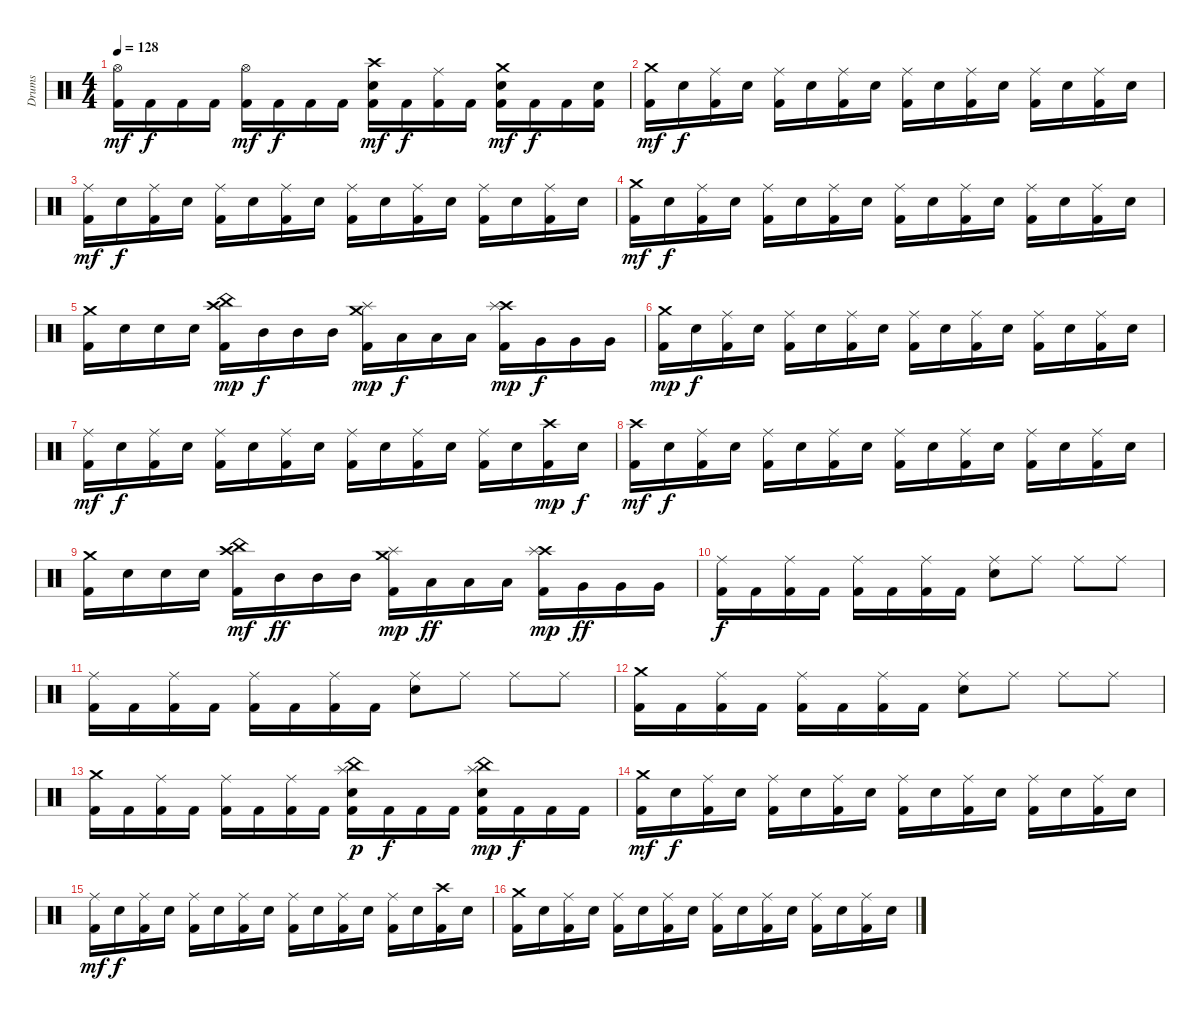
\track ("Drums" "Drums") {instrument percussion}
\staff {score}
\articulation defaults
\ts (4 4)
\tempo 128
\clef neutral
\ks c
("Hi-Hat (open)" "Kick (hit) 2").16{dy mf} "Kick (hit) 2".16{dy f} "Kick (hit) 2".16 "Kick (hit) 2".16 ("Hi-Hat (open)" "Kick (hit) 2").16{dy mf} "Kick (hit) 2".16{dy f} "Kick (hit) 2".16 "Kick (hit) 2".16 ("Crash high (hit)" "Electric Snare (hit)" "Kick (hit) 2").16{dy mf} "Kick (hit) 2".16{dy f} ("Ride (middle)" "Kick (hit) 2").16 "Kick (hit) 2".16 ("Crash medium (hit)" "Electric Snare (hit)" "Kick (hit) 2").16{dy mf} "Kick (hit) 2".16{dy f} "Kick (hit) 2".16 ("Electric Snare (hit)" "Kick (hit) 2").16 |
("Crash medium (hit)" "Kick (hit) 2").16{dy mf} "Electric Snare (hit)".16{dy f} ("Ride (middle)" "Kick (hit) 2").16 "Electric Snare (hit)".16 ("Ride (middle)" "Kick (hit) 2").16 "Electric Snare (hit)".16 ("Ride (middle)" "Kick (hit) 2").16 "Electric Snare (hit)".16 ("Ride (middle)" "Kick (hit) 2").16 "Electric Snare (hit)".16 ("Ride (middle)" "Kick (hit) 2").16 "Electric Snare (hit)".16 ("Ride (middle)" "Kick (hit) 2").16 "Electric Snare (hit)".16 ("Ride (middle)" "Kick (hit) 2").16 "Electric Snare (hit)".16 |
("Ride (middle)" "Kick (hit) 2").16{dy mf} "Electric Snare (hit)".16{dy f} ("Ride (middle)" "Kick (hit) 2").16 "Electric Snare (hit)".16 ("Ride (middle)" "Kick (hit) 2").16 "Electric Snare (hit)".16 ("Ride (middle)" "Kick (hit) 2").16 "Electric Snare (hit)".16 ("Ride (middle)" "Kick (hit) 2").16 "Electric Snare (hit)".16 ("Ride (middle)" "Kick (hit) 2").16 "Electric Snare (hit)".16 ("Ride (middle)" "Kick (hit) 2").16 "Electric Snare (hit)".16 ("Ride (middle)" "Kick (hit) 2").16 "Electric Snare (hit)".16 |
("Crash medium (hit)" "Kick (hit) 2").16{dy mf} "Electric Snare (hit)".16{dy f} ("Ride (middle)" "Kick (hit) 2").16 "Electric Snare (hit)".16 ("Ride (middle)" "Kick (hit) 2").16 "Electric Snare (hit)".16 ("Ride (middle)" "Kick (hit) 2").16 "Electric Snare (hit)".16 ("Ride (middle)" "Kick (hit) 2").16 "Electric Snare (hit)".16 ("Ride (middle)" "Kick (hit) 2").16 "Electric Snare (hit)".16 ("Ride (middle)" "Kick (hit) 2").16 "Electric Snare (hit)".16 ("Ride (middle)" "Kick (hit) 2").16 "Electric Snare (hit)".16 |
("Crash medium (hit)" "Kick (hit) 2").16 "Electric Snare (hit)".16 "Electric Snare (hit)".16 "Electric Snare (hit)".16 ("Crash high (hit)" "China (hit)" "Kick (hit) 2").16{dy mp} "Mid Tom (hit)".16{dy f} "Mid Tom (hit)".16 "Mid Tom (hit)".16 ("Crash medium (hit)" "Splash (hit)" "Kick (hit) 2").16{dy mp} "Low Tom (hit)".16{dy f} "Low Tom (hit)".16 "Low Tom (hit)".16 ("Crash high (hit)" "Splash (hit)" "Kick (hit) 2").16{dy mp} "Very Low Tom (hit)".16{dy f} "Very Low Tom (hit)".16 "Very Low Tom (hit)".16 |
("Crash medium (hit)" "Kick (hit) 2").16{dy mp} "Electric Snare (hit)".16{dy f} ("Ride (middle)" "Kick (hit) 2").16 "Electric Snare (hit)".16 ("Ride (middle)" "Kick (hit) 2").16 "Electric Snare (hit)".16 ("Ride (middle)" "Kick (hit) 2").16 "Electric Snare (hit)".16 ("Ride (middle)" "Kick (hit) 2").16 "Electric Snare (hit)".16 ("Ride (middle)" "Kick (hit) 2").16 "Electric Snare (hit)".16 ("Ride (middle)" "Kick (hit) 2").16 "Electric Snare (hit)".16 ("Ride (middle)" "Kick (hit) 2").16 "Electric Snare (hit)".16 |
("Ride (middle)" "Kick (hit) 2").16{dy mf} "Electric Snare (hit)".16{dy f} ("Ride (middle)" "Kick (hit) 2").16 "Electric Snare (hit)".16 ("Ride (middle)" "Kick (hit) 2").16 "Electric Snare (hit)".16 ("Ride (middle)" "Kick (hit) 2").16 "Electric Snare (hit)".16 ("Ride (middle)" "Kick (hit) 2").16 "Electric Snare (hit)".16 ("Ride (middle)" "Kick (hit) 2").16 "Electric Snare (hit)".16 ("Ride (middle)" "Kick (hit) 2").16 "Electric Snare (hit)".16 ("Crash high (hit)" "Kick (hit) 2").16{dy mp} "Electric Snare (hit)".16{dy f} |
("Crash high (hit)" "Kick (hit) 2").16{dy mf} "Electric Snare (hit)".16{dy f} ("Ride (middle)" "Kick (hit) 2").16 "Electric Snare (hit)".16 ("Ride (middle)" "Kick (hit) 2").16 "Electric Snare (hit)".16 ("Ride (middle)" "Kick (hit) 2").16 "Electric Snare (hit)".16 ("Ride (middle)" "Kick (hit) 2").16 "Electric Snare (hit)".16 ("Ride (middle)" "Kick (hit) 2").16 "Electric Snare (hit)".16 ("Ride (middle)" "Kick (hit) 2").16 "Electric Snare (hit)".16 ("Ride (middle)" "Kick (hit) 2").16 "Electric Snare (hit)".16 |
("Crash medium (hit)" "Kick (hit) 2").16 "Electric Snare (hit)".16 "Electric Snare (hit)".16 "Electric Snare (hit)".16 ("Crash high (hit)" "China (hit)" "Kick (hit) 2").16{dy mf} "Mid Tom (hit)".16{dy ff} "Mid Tom (hit)".16 "Mid Tom (hit)".16 ("Crash medium (hit)" "Splash (hit)" "Kick (hit) 2").16{dy mp} "Low Tom (hit)".16{dy ff} "Low Tom (hit)".16 "Low Tom (hit)".16 ("Crash high (hit)" "Splash (hit)" "Kick (hit) 2").16{dy mp} "Very Low Tom (hit)".16{dy ff} "Very Low Tom (hit)".16 "Very Low Tom (hit)".16 |
("Ride (middle)" "Kick (hit) 2").16{dy f} "Kick (hit) 2".16 ("Ride (middle)" "Kick (hit) 2").16 "Kick (hit) 2".16 ("Ride (middle)" "Kick (hit) 2").16 "Kick (hit) 2".16 ("Ride (middle)" "Kick (hit) 2").16 "Kick (hit) 2".16 ("Ride (middle)" "Electric Snare (hit)").8 "Ride (middle)".8 "Ride (middle)".8 "Ride (middle)".8 |
("Ride (middle)" "Kick (hit) 2").16 "Kick (hit) 2".16 ("Ride (middle)" "Kick (hit) 2").16 "Kick (hit) 2".16 ("Ride (middle)" "Kick (hit) 2").16 "Kick (hit) 2".16 ("Ride (middle)" "Kick (hit) 2").16 "Kick (hit) 2".16 ("Ride (middle)" "Electric Snare (hit)").8 "Ride (middle)".8 "Ride (middle)".8 "Ride (middle)".8 |
("Crash medium (hit)" "Kick (hit) 2").16 "Kick (hit) 2".16 ("Ride (middle)" "Kick (hit) 2").16 "Kick (hit) 2".16 ("Ride (middle)" "Kick (hit) 2").16 "Kick (hit) 2".16 ("Ride (middle)" "Kick (hit) 2").16 "Kick (hit) 2".16 ("Ride (middle)" "Electric Snare (hit)").8 "Ride (middle)".8 "Ride (middle)".8 "Ride (middle)".8 |
("Crash medium (hit)" "Kick (hit) 2").16 "Kick (hit) 2".16 ("Ride (middle)" "Kick (hit) 2").16 "Kick (hit) 2".16 ("Ride (middle)" "Kick (hit) 2").16 "Kick (hit) 2".16 ("Ride (middle)" "Kick (hit) 2").16 "Kick (hit) 2".16 ("Splash (hit)" "China (hit)" "Electric Snare (hit)" "Kick (hit) 2").16{dy p} "Kick (hit) 2".16{dy f} "Kick (hit) 2".16 "Kick (hit) 2".16 ("Splash (hit)" "China (hit)" "Electric Snare (hit)" "Kick (hit) 2").16{dy mp} "Kick (hit) 2".16{dy f} "Kick (hit) 2".16 "Kick (hit) 2".16 |
("Crash medium (hit)" "Kick (hit) 2").16{dy mf} "Electric Snare (hit)".16{dy f} ("Ride (middle)" "Kick (hit) 2").16 "Electric Snare (hit)".16 ("Ride (middle)" "Kick (hit) 2").16 "Electric Snare (hit)".16 ("Ride (middle)" "Kick (hit) 2").16 "Electric Snare (hit)".16 ("Ride (middle)" "Kick (hit) 2").16 "Electric Snare (hit)".16 ("Ride (middle)" "Kick (hit) 2").16 "Electric Snare (hit)".16 ("Ride (middle)" "Kick (hit) 2").16 "Electric Snare (hit)".16 ("Ride (middle)" "Kick (hit) 2").16 "Electric Snare (hit)".16 |
("Ride (middle)" "Kick (hit) 2").16{dy mf} "Electric Snare (hit)".16{dy f} ("Ride (middle)" "Kick (hit) 2").16 "Electric Snare (hit)".16 ("Ride (middle)" "Kick (hit) 2").16 "Electric Snare (hit)".16 ("Ride (middle)" "Kick (hit) 2").16 "Electric Snare (hit)".16 ("Ride (middle)" "Kick (hit) 2").16 "Electric Snare (hit)".16 ("Ride (middle)" "Kick (hit) 2").16 "Electric Snare (hit)".16 ("Ride (middle)" "Kick (hit) 2").16 "Electric Snare (hit)".16 ("Crash high (hit)" "Kick (hit) 2").16 "Electric Snare (hit)".16 |
("Crash medium (hit)" "Kick (hit) 2").16 "Electric Snare (hit)".16 ("Ride (middle)" "Kick (hit) 2").16 "Electric Snare (hit)".16 ("Ride (middle)" "Kick (hit) 2").16 "Electric Snare (hit)".16 ("Ride (middle)" "Kick (hit) 2").16 "Electric Snare (hit)".16 ("Ride (middle)" "Kick (hit) 2").16 "Electric Snare (hit)".16 ("Ride (middle)" "Kick (hit) 2").16 "Electric Snare (hit)".16 ("Ride (middle)" "Kick (hit) 2").16 "Electric Snare (hit)".16 ("Ride (middle)" "Kick (hit) 2").16 "Electric Snare (hit)".16
